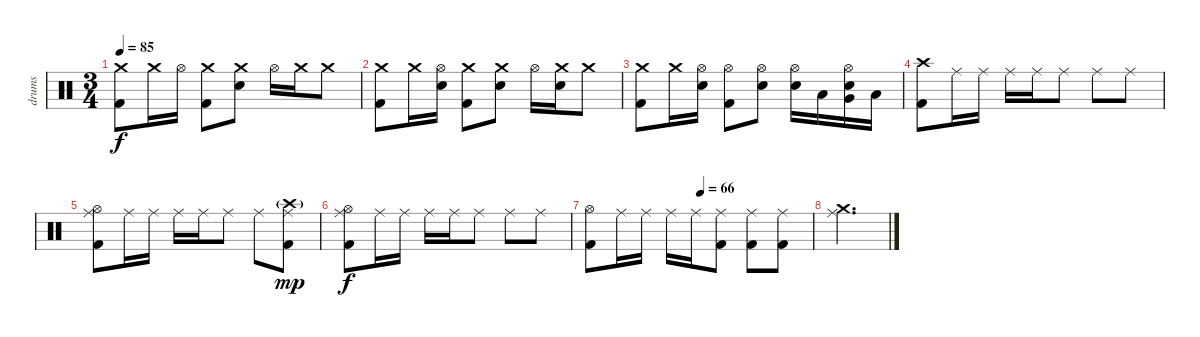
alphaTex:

\track ("drums" "drums") {instrument percussion}
\staff {score}
\articulation defaults
\ts (3 4)
\tempo 85
\clef neutral
\ks c
("Crash medium (hit)" "Kick (hit) 2").8{dy f} "Crash medium (hit)".16 "Hi-Hat (open)".16 ("Kick (hit) 2" "Crash medium (hit)").8 ("Snare (hit) 2" "Crash medium (hit)").8 "Hi-Hat (open)".16 "Crash medium (hit)".16 "Crash medium (hit)".8 |
("Crash medium (hit)" "Kick (hit) 2").8 "Crash medium (hit)".16 ("Snare (hit) 2" "Hi-Hat (open)").16 ("Kick (hit) 2" "Crash medium (hit)").8 ("Snare (hit) 2" "Crash medium (hit)").8 "Hi-Hat (open)".16 ("Snare (hit) 2" "Crash medium (hit)").16 "Crash medium (hit)".8 |
("Crash medium (hit)" "Kick (hit) 2").8 "Crash medium (hit)".16 ("Snare (hit) 2" "Hi-Hat (open)").16 ("Kick (hit) 2" "Hi-Hat (open)").8 ("Snare (hit) 2" "Hi-Hat (open)").8 ("Snare (hit) 2" "Hi-Hat (open)").16 "Low Floor Tom (hit)".16 ("Snare (hit) 2" "Very Low Tom (hit)" "Hi-Hat (open)").16 "Low Floor Tom (hit)".16 |
("Crash high (hit)" "Kick (hit) 2").8 "Ride (middle)".16 "Ride (middle)".16 "Ride (middle)".16 "Ride (middle)".16 "Ride (middle)".8 "Ride (middle)".8 "Ride (middle)".8 |
("Ride (middle)" "Hi-Hat (open)" "Kick (hit) 2").8 "Ride (middle)".16 "Ride (middle)".16 "Ride (middle)".16 "Ride (middle)".16 "Ride (middle)".8 "Ride (middle)".8 ("Crash high (hit)"{g} "Ride (middle)" "Kick (hit) 2").8{dy mp} |
("Hi-Hat (open)" "Ride (middle)" "Kick (hit) 2").8{dy f} "Ride (middle)".16 "Ride (middle)".16 "Ride (middle)".16 "Ride (middle)".16 "Ride (middle)".8 "Ride (middle)".8 "Ride (middle)".8 |
\tempo (66 0.5)
("Hi-Hat (open)" "Kick (hit) 2").8 "Ride (middle)".16 "Ride (middle)".16 "Ride (middle)".16 "Ride (middle)".16 ("Ride (middle)" "Kick (hit) 2").8 ("Ride (middle)" "Kick (hit) 2").8 ("Ride (middle)" "Kick (hit) 2").8 |
("Crash medium (hit)" "Ride (middle)").2{d}
